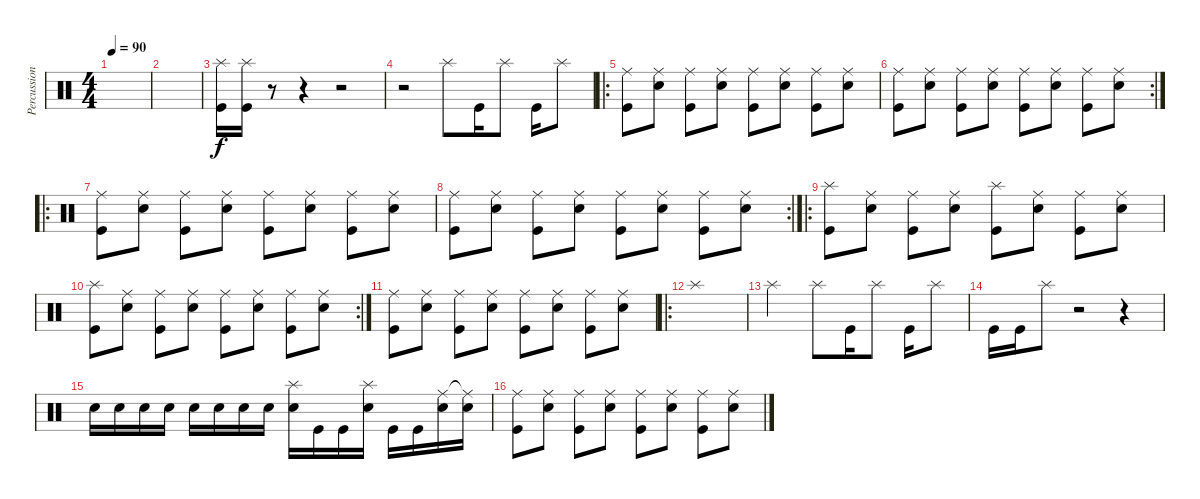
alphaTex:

\track ("Percussion" "Percussion") {instrument percussion}
\staff {score}
\articulation defaults
\ts (4 4)
\tempo 90
\clef neutral
\ks c
|
|
("Splash (hit)" "Kick (hit)").16 ("Splash (hit)" "Kick (hit)").16 r.8 r.4 r.2 |
r.2 "Splash (hit)".8 "Kick (hit)".16 "Splash (hit)".8 "Kick (hit)".16 "Splash (hit)".8 |
\ro
("Ride (middle)" "Kick (hit)").8 ("Ride (middle)" "Electric Snare (hit)").8 ("Ride (middle)" "Kick (hit)").8 ("Ride (middle)" "Electric Snare (hit)").8 ("Ride (middle)" "Kick (hit)").8 ("Ride (middle)" "Electric Snare (hit)").8 ("Ride (middle)" "Kick (hit)").8 ("Ride (middle)" "Electric Snare (hit)").8 |
\rc 2
("Ride (middle)" "Kick (hit)").8 ("Ride (middle)" "Electric Snare (hit)").8 ("Ride (middle)" "Kick (hit)").8 ("Ride (middle)" "Electric Snare (hit)").8 ("Ride (middle)" "Kick (hit)").8 ("Ride (middle)" "Electric Snare (hit)").8 ("Ride (middle)" "Kick (hit)").8 ("Ride (middle)" "Electric Snare (hit)").8 |
\ro
("Ride (middle)" "Kick (hit)").8 ("Ride (middle)" "Electric Snare (hit)").8 ("Ride (middle)" "Kick (hit)").8 ("Ride (middle)" "Electric Snare (hit)").8 ("Ride (middle)" "Kick (hit)").8 ("Ride (middle)" "Electric Snare (hit)").8 ("Ride (middle)" "Kick (hit)").8 ("Ride (middle)" "Electric Snare (hit)").8 |
\rc 2
("Ride (middle)" "Kick (hit)").8 ("Ride (middle)" "Electric Snare (hit)").8 ("Ride (middle)" "Kick (hit)").8 ("Ride (middle)" "Electric Snare (hit)").8 ("Ride (middle)" "Kick (hit)").8 ("Ride (middle)" "Electric Snare (hit)").8 ("Ride (middle)" "Kick (hit)").8 ("Ride (middle)" "Electric Snare (hit)").8 |
\ro
("Splash (hit)" "Kick (hit)").8 ("Ride (middle)" "Electric Snare (hit)").8 ("Ride (middle)" "Kick (hit)").8 ("Ride (middle)" "Electric Snare (hit)").8 ("Splash (hit)" "Kick (hit)").8 ("Ride (middle)" "Electric Snare (hit)").8 ("Ride (middle)" "Kick (hit)").8 ("Ride (middle)" "Electric Snare (hit)").8 |
\rc 2
("Splash (hit)" "Kick (hit)").8 ("Ride (middle)" "Electric Snare (hit)").8 ("Ride (middle)" "Kick (hit)").8 ("Ride (middle)" "Electric Snare (hit)").8 ("Ride (middle)" "Kick (hit)").8 ("Ride (middle)" "Electric Snare (hit)").8 ("Ride (middle)" "Kick (hit)").8 ("Ride (middle)" "Electric Snare (hit)").8 |
("Ride (middle)" "Kick (hit)").8 ("Ride (middle)" "Electric Snare (hit)").8 ("Ride (middle)" "Kick (hit)").8 ("Ride (middle)" "Electric Snare (hit)").8 ("Ride (middle)" "Kick (hit)").8 ("Ride (middle)" "Electric Snare (hit)").8 ("Ride (middle)" "Kick (hit)").8 ("Ride (middle)" "Electric Snare (hit)").8 |
\ro "Splash (hit)".1
|
"Splash (hit)".2 "Splash (hit)".8 "Kick (hit)".16 "Splash (hit)".8 "Kick (hit)".16 "Splash (hit)".8 |
"Kick (hit)".16 "Kick (hit)".16 "Splash (hit)".8 r.2 r.4 |
"Electric Snare (hit)".16 "Electric Snare (hit)".16 "Electric Snare (hit)".16 "Electric Snare (hit)".16 "Electric Snare (hit)".16 "Electric Snare (hit)".16 "Electric Snare (hit)".16 "Electric Snare (hit)".16 ("Splash (hit)" "Electric Snare (hit)").16 "Kick (hit)".16 "Kick (hit)".16 ("Splash (hit)" "Electric Snare (hit)").16 "Kick (hit)".16 "Kick (hit)".16 ("Ride (middle)" "Electric Snare (hit)").16 ("Ride (middle)"{t} "Electric Snare (hit)").16 |
("Ride (middle)" "Kick (hit)").8 ("Ride (middle)" "Electric Snare (hit)").8 ("Ride (middle)" "Kick (hit)").8 ("Ride (middle)" "Electric Snare (hit)").8 ("Ride (middle)" "Kick (hit)").8 ("Ride (middle)" "Electric Snare (hit)").8 ("Ride (middle)" "Kick (hit)").8 ("Ride (middle)" "Electric Snare (hit)").8
